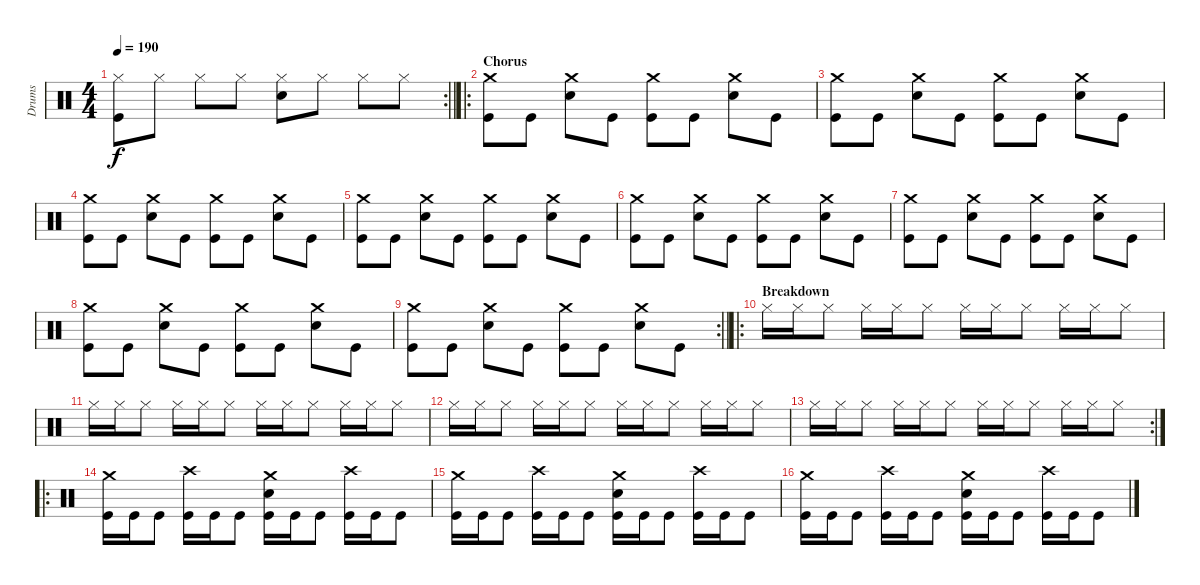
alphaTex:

\track ("Drums" "Drums") {instrument percussion}
\staff {score}
\articulation defaults
\rc 2
\ts (4 4)
\tempo 190
\clef neutral
\barLineRight lightlight
\ks c
("Hi-Hat (closed)" "Kick (hit)").8{dy f} "Hi-Hat (closed)".8 "Hi-Hat (closed)".8 "Hi-Hat (closed)".8 ("Hi-Hat (closed)" "Snare (hit) 2").8 "Hi-Hat (closed)".8 "Hi-Hat (closed)".8 "Hi-Hat (closed)".8 |
\ro
\section ("" "Chorus")
("Crash medium (hit)" "Kick (hit)").8 "Kick (hit)".8 ("Crash medium (hit)" "Snare (hit) 2").8 "Kick (hit)".8 ("Crash medium (hit)" "Kick (hit)").8 "Kick (hit)".8 ("Crash medium (hit)" "Snare (hit) 2").8 "Kick (hit)".8 |
("Crash medium (hit)" "Kick (hit)").8 "Kick (hit)".8 ("Crash medium (hit)" "Snare (hit) 2").8 "Kick (hit)".8 ("Crash medium (hit)" "Kick (hit)").8 "Kick (hit)".8 ("Crash medium (hit)" "Snare (hit) 2").8 "Kick (hit)".8 |
("Crash medium (hit)" "Kick (hit)").8 "Kick (hit)".8 ("Crash medium (hit)" "Snare (hit) 2").8 "Kick (hit)".8 ("Crash medium (hit)" "Kick (hit)").8 "Kick (hit)".8 ("Crash medium (hit)" "Snare (hit) 2").8 "Kick (hit)".8 |
("Crash medium (hit)" "Kick (hit)").8 "Kick (hit)".8 ("Crash medium (hit)" "Snare (hit) 2").8 "Kick (hit)".8 ("Crash medium (hit)" "Kick (hit)").8 "Kick (hit)".8 ("Crash medium (hit)" "Snare (hit) 2").8 "Kick (hit)".8 |
("Crash medium (hit)" "Kick (hit)").8 "Kick (hit)".8 ("Crash medium (hit)" "Snare (hit) 2").8 "Kick (hit)".8 ("Crash medium (hit)" "Kick (hit)").8 "Kick (hit)".8 ("Crash medium (hit)" "Snare (hit) 2").8 "Kick (hit)".8 |
("Crash medium (hit)" "Kick (hit)").8 "Kick (hit)".8 ("Crash medium (hit)" "Snare (hit) 2").8 "Kick (hit)".8 ("Crash medium (hit)" "Kick (hit)").8 "Kick (hit)".8 ("Crash medium (hit)" "Snare (hit) 2").8 "Kick (hit)".8 |
("Crash medium (hit)" "Kick (hit)").8 "Kick (hit)".8 ("Crash medium (hit)" "Snare (hit) 2").8 "Kick (hit)".8 ("Crash medium (hit)" "Kick (hit)").8 "Kick (hit)".8 ("Crash medium (hit)" "Snare (hit) 2").8 "Kick (hit)".8 |
\rc 2
\barLineRight lightlight
("Crash medium (hit)" "Kick (hit)").8 "Kick (hit)".8 ("Crash medium (hit)" "Snare (hit) 2").8 "Kick (hit)".8 ("Crash medium (hit)" "Kick (hit)").8 "Kick (hit)".8 ("Crash medium (hit)" "Snare (hit) 2").8 "Kick (hit)".8 |
\ro
\section ("" "Breakdown")
"Hi-Hat (closed)".16 "Hi-Hat (closed)".16 "Hi-Hat (closed)".8 "Hi-Hat (closed)".16 "Hi-Hat (closed)".16 "Hi-Hat (closed)".8 "Hi-Hat (closed)".16 "Hi-Hat (closed)".16 "Hi-Hat (closed)".8 "Hi-Hat (closed)".16 "Hi-Hat (closed)".16 "Hi-Hat (closed)".8 |
"Hi-Hat (closed)".16 "Hi-Hat (closed)".16 "Hi-Hat (closed)".8 "Hi-Hat (closed)".16 "Hi-Hat (closed)".16 "Hi-Hat (closed)".8 "Hi-Hat (closed)".16 "Hi-Hat (closed)".16 "Hi-Hat (closed)".8 "Hi-Hat (closed)".16 "Hi-Hat (closed)".16 "Hi-Hat (closed)".8 |
"Hi-Hat (closed)".16 "Hi-Hat (closed)".16 "Hi-Hat (closed)".8 "Hi-Hat (closed)".16 "Hi-Hat (closed)".16 "Hi-Hat (closed)".8 "Hi-Hat (closed)".16 "Hi-Hat (closed)".16 "Hi-Hat (closed)".8 "Hi-Hat (closed)".16 "Hi-Hat (closed)".16 "Hi-Hat (closed)".8 |
\rc 2 "Hi-Hat (closed)".16 "Hi-Hat (closed)".16 "Hi-Hat (closed)".8 "Hi-Hat (closed)".16 "Hi-Hat (closed)".16 "Hi-Hat (closed)".8 "Hi-Hat (closed)".16 "Hi-Hat (closed)".16 "Hi-Hat (closed)".8 "Hi-Hat (closed)".16 "Hi-Hat (closed)".16 "Hi-Hat (closed)".8
|
\ro
("Crash medium (hit)" "Kick (hit)").16 "Kick (hit)".16 "Kick (hit)".8 ("Crash high (hit)" "Kick (hit)").16 "Kick (hit)".16 "Kick (hit)".8 ("Crash medium (hit)" "Snare (hit) 2" "Kick (hit)").16 "Kick (hit)".16 "Kick (hit)".8 ("Crash high (hit)" "Kick (hit)").16 "Kick (hit)".16 "Kick (hit)".8 |
("Crash medium (hit)" "Kick (hit)").16 "Kick (hit)".16 "Kick (hit)".8 ("Crash high (hit)" "Kick (hit)").16 "Kick (hit)".16 "Kick (hit)".8 ("Crash medium (hit)" "Snare (hit) 2" "Kick (hit)").16 "Kick (hit)".16 "Kick (hit)".8 ("Crash high (hit)" "Kick (hit)").16 "Kick (hit)".16 "Kick (hit)".8 |
("Crash medium (hit)" "Kick (hit)").16 "Kick (hit)".16 "Kick (hit)".8 ("Crash high (hit)" "Kick (hit)").16 "Kick (hit)".16 "Kick (hit)".8 ("Crash medium (hit)" "Snare (hit) 2" "Kick (hit)").16 "Kick (hit)".16 "Kick (hit)".8 ("Crash high (hit)" "Kick (hit)").16 "Kick (hit)".16 "Kick (hit)".8
